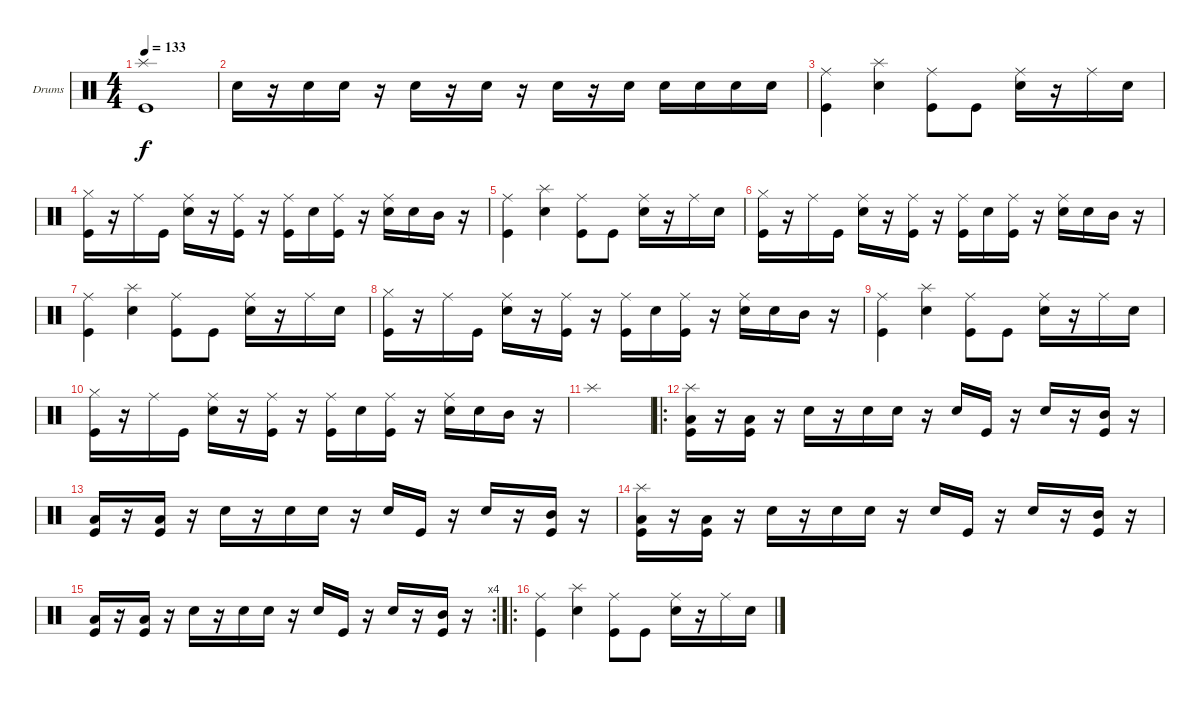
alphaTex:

\bracketExtendMode groupsimilarinstruments
\firstSystemTrackNameOrientation horizontal
\otherSystemsTrackNameOrientation horizontal
\track ("Drumkit" "Drums") {instrument percussion}
\staff {score}
\articulation defaults
\ts (4 4)
\tempo 133
\clef neutral
\ks c
("Splash (hit)" "Kick (hit)").1{dy f} |
"Snare (hit) 2".16 r.16 "Snare (hit) 2".16 "Snare (hit) 2".16 r.16 "Snare (hit) 2".16 r.16 "Snare (hit) 2".16 r.16 "Snare (hit) 2".16 r.16 "Snare (hit) 2".16 "Snare (hit) 2".16 "Snare (hit) 2".16 "Snare (hit) 2".16 "Snare (hit) 2".16 |
("Kick (hit)" "Ride (middle)").4 ("Snare (hit) 2" "Splash (hit)").4 ("Kick (hit)" "Ride (middle)").8 "Kick (hit)".8 ("Snare (hit) 2" "Ride (middle)").16 r.16 "Ride (middle)".16 "Snare (hit) 2".16 |
("Kick (hit)" "Hi-Hat (closed)").16 r.16 "Ride (middle)".16 "Kick (hit)".16 ("Snare (hit) 2" "Ride (middle)").16 r.16 ("Kick (hit)" "Ride (middle)").16 r.16 ("Ride (middle)" "Kick (hit)").16 "Snare (hit) 2".16 ("Kick (hit)" "Ride (middle)").16 r.16 ("Snare (hit) 2" "Ride (middle)").16 "Snare (hit) 2".16 "Mid Tom (hit)".16 r.16 |
("Kick (hit)" "Ride (middle)").4 ("Snare (hit) 2" "Splash (hit)").4 ("Kick (hit)" "Ride (middle)").8 "Kick (hit)".8 ("Snare (hit) 2" "Ride (middle)").16 r.16 "Ride (middle)".16 "Snare (hit) 2".16 |
("Kick (hit)" "Hi-Hat (closed)").16 r.16 "Ride (middle)".16 "Kick (hit)".16 ("Snare (hit) 2" "Ride (middle)").16 r.16 ("Kick (hit)" "Ride (middle)").16 r.16 ("Ride (middle)" "Kick (hit)").16 "Snare (hit) 2".16 ("Kick (hit)" "Ride (middle)").16 r.16 ("Snare (hit) 2" "Ride (middle)").16 "Snare (hit) 2".16 "Mid Tom (hit)".16 r.16 |
("Kick (hit)" "Ride (middle)").4 ("Snare (hit) 2" "Splash (hit)").4 ("Kick (hit)" "Ride (middle)").8 "Kick (hit)".8 ("Snare (hit) 2" "Ride (middle)").16 r.16 "Ride (middle)".16 "Snare (hit) 2".16 |
("Kick (hit)" "Hi-Hat (closed)").16 r.16 "Ride (middle)".16 "Kick (hit)".16 ("Snare (hit) 2" "Ride (middle)").16 r.16 ("Kick (hit)" "Ride (middle)").16 r.16 ("Ride (middle)" "Kick (hit)").16 "Snare (hit) 2".16 ("Kick (hit)" "Ride (middle)").16 r.16 ("Snare (hit) 2" "Ride (middle)").16 "Snare (hit) 2".16 "Mid Tom (hit)".16 r.16 |
("Kick (hit)" "Ride (middle)").4 ("Snare (hit) 2" "Splash (hit)").4 ("Kick (hit)" "Ride (middle)").8 "Kick (hit)".8 ("Snare (hit) 2" "Ride (middle)").16 r.16 "Ride (middle)".16 "Snare (hit) 2".16 |
("Kick (hit)" "Hi-Hat (closed)").16 r.16 "Ride (middle)".16 "Kick (hit)".16 ("Snare (hit) 2" "Ride (middle)").16 r.16 ("Kick (hit)" "Ride (middle)").16 r.16 ("Ride (middle)" "Kick (hit)").16 "Snare (hit) 2".16 ("Kick (hit)" "Ride (middle)").16 r.16 ("Snare (hit) 2" "Ride (middle)").16 "Snare (hit) 2".16 "Mid Tom (hit)".16 r.16 |
"Splash (hit)".1 |
\ro
("Splash (hit)" "Kick (hit)" "Low Tom (hit)").16 r.16 ("Kick (hit)" "Low Tom (hit)").16 r.16 "Snare (hit) 2".16 r.16 "Snare (hit) 2".16 "Snare (hit) 2".16 r.16 "Snare (hit) 2".16 "Kick (hit)".16 r.16 "Snare (hit) 2".16 r.16 ("Kick (hit)" "Mid Tom (hit)").16 r.16 |
("Kick (hit)" "Low Tom (hit)").16 r.16 ("Kick (hit)" "Low Tom (hit)").16 r.16 "Snare (hit) 2".16 r.16 "Snare (hit) 2".16 "Snare (hit) 2".16 r.16 "Snare (hit) 2".16 "Kick (hit)".16 r.16 "Snare (hit) 2".16 r.16 ("Kick (hit)" "Mid Tom (hit)").16 r.16 |
("Splash (hit)" "Kick (hit)" "Low Tom (hit)").16 r.16 ("Kick (hit)" "Low Tom (hit)").16 r.16 "Snare (hit) 2".16 r.16 "Snare (hit) 2".16 "Snare (hit) 2".16 r.16 "Snare (hit) 2".16 "Kick (hit)".16 r.16 "Snare (hit) 2".16 r.16 ("Kick (hit)" "Mid Tom (hit)").16 r.16 |
\rc 4
("Kick (hit)" "Low Tom (hit)").16 r.16 ("Kick (hit)" "Low Tom (hit)").16 r.16 "Snare (hit) 2".16 r.16 "Snare (hit) 2".16 "Snare (hit) 2".16 r.16 "Snare (hit) 2".16 "Kick (hit)".16 r.16 "Snare (hit) 2".16 r.16 ("Kick (hit)" "Mid Tom (hit)").16 r.16 |
\ro
("Kick (hit)" "Ride (middle)").4 ("Snare (hit) 2" "Splash (hit)").4 ("Kick (hit)" "Ride (middle)").8 "Kick (hit)".8 ("Snare (hit) 2" "Ride (middle)").16 r.16 "Ride (middle)".16 "Snare (hit) 2".16
